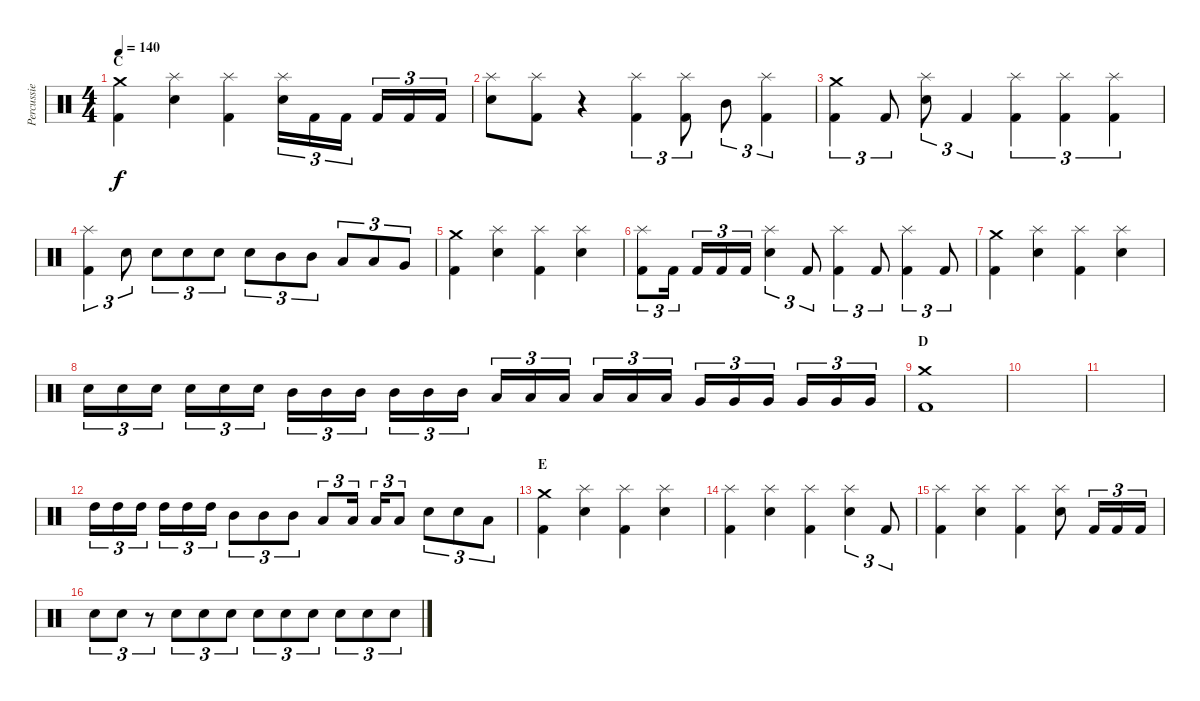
\track ("Percussie" "Percussie") {instrument percussion}
\staff {score}
\articulation defaults
\ts (4 4)
\section ("" "C")
\tempo 140
\clef neutral
\ks c
("Crash medium (hit)" "Kick (hit) 2").4{dy f} ("Splash (hit)" "Electric Snare (hit)").4 ("Splash (hit)" "Kick (hit) 2").4 ("Splash (hit)" "Electric Snare (hit)").16{tu (3 2)} "Kick (hit) 2".16{tu (3 2)} "Kick (hit) 2".16{tu (3 2)} "Kick (hit) 2".16{tu (3 2)} "Kick (hit) 2".16{tu (3 2)} "Kick (hit) 2".16{tu (3 2)} |
("Splash (hit)" "Electric Snare (hit)").8 ("Splash (hit)" "Kick (hit) 2").8 r.4 ("Splash (hit)" "Kick (hit) 2").4{tu (3 2)} ("Splash (hit)" "Kick (hit) 2").8{tu (3 2)} "Mid Tom (hit)".8{tu (3 2)} ("Splash (hit)" "Kick (hit) 2").4{tu (3 2)} |
("Crash medium (hit)" "Kick (hit) 2").4{tu (3 2)} "Kick (hit) 2".8{tu (3 2)} ("Splash (hit)" "Electric Snare (hit)").8{tu (3 2)} "Kick (hit) 2".4{tu (3 2)} ("Splash (hit)" "Kick (hit) 2").4{tu (3 2)} ("Splash (hit)" "Kick (hit) 2").4{tu (3 2)} ("Splash (hit)" "Kick (hit) 2").4{tu (3 2)} |
("Splash (hit)" "Kick (hit) 2").4{tu (3 2)} "Electric Snare (hit)".8{tu (3 2)} "Electric Snare (hit)".8{tu (3 2)} "Electric Snare (hit)".8{tu (3 2)} "Electric Snare (hit)".8{tu (3 2)} "Electric Snare (hit)".8{tu (3 2)} "Mid Tom (hit)".8{tu (3 2)} "Mid Tom (hit)".8{tu (3 2)} "Low Tom (hit)".8{tu (3 2)} "Low Tom (hit)".8{tu (3 2)} "Very Low Tom (hit)".8{tu (3 2)} |
("Crash medium (hit)" "Kick (hit) 2").4 ("Splash (hit)" "Electric Snare (hit)").4 ("Splash (hit)" "Kick (hit) 2").4 ("Splash (hit)" "Electric Snare (hit)").4 |
("Splash (hit)" "Kick (hit) 2").8{tu (3 2)} "Kick (hit) 2".16{tu (3 2)} "Kick (hit) 2".16{tu (3 2)} "Kick (hit) 2".16{tu (3 2)} "Kick (hit) 2".16{tu (3 2)} ("Splash (hit)" "Electric Snare (hit)").4{tu (3 2)} "Kick (hit) 2".8{tu (3 2)} ("Splash (hit)" "Kick (hit) 2").4{tu (3 2)} "Kick (hit) 2".8{tu (3 2)} ("Splash (hit)" "Kick (hit) 2").4{tu (3 2)} "Kick (hit) 2".8{tu (3 2)} |
("Crash medium (hit)" "Kick (hit) 2").4 ("Splash (hit)" "Electric Snare (hit)").4 ("Splash (hit)" "Kick (hit) 2").4 ("Splash (hit)" "Electric Snare (hit)").4 |
"Electric Snare (hit)".16{tu (3 2)} "Electric Snare (hit)".16{tu (3 2)} "Electric Snare (hit)".16{tu (3 2)} "Electric Snare (hit)".16{tu (3 2)} "Electric Snare (hit)".16{tu (3 2)} "Electric Snare (hit)".16{tu (3 2)} "Mid Tom (hit)".16{tu (3 2)} "Mid Tom (hit)".16{tu (3 2)} "Mid Tom (hit)".16{tu (3 2)} "Mid Tom (hit)".16{tu (3 2)} "Mid Tom (hit)".16{tu (3 2)} "Mid Tom (hit)".16{tu (3 2)} "Low Tom (hit)".16{tu (3 2)} "Low Tom (hit)".16{tu (3 2)} "Low Tom (hit)".16{tu (3 2)} "Low Tom (hit)".16{tu (3 2)} "Low Tom (hit)".16{tu (3 2)} "Low Tom (hit)".16{tu (3 2)} "Very Low Tom (hit)".16{tu (3 2)} "Very Low Tom (hit)".16{tu (3 2)} "Very Low Tom (hit)".16{tu (3 2)} "Very Low Tom (hit)".16{tu (3 2)} "Very Low Tom (hit)".16{tu (3 2)} "Very Low Tom (hit)".16{tu (3 2)} |
\section ("" "D")
("Crash medium (hit)" "Kick (hit) 2").1 |
|
|
"High Tom (hit)".16{tu (3 2)} "High Tom (hit)".16{tu (3 2)} "High Tom (hit)".16{tu (3 2)} "High Tom (hit)".16{tu (3 2)} "High Tom (hit)".16{tu (3 2)} "High Tom (hit)".16{tu (3 2)} "Mid Tom (hit)".8{tu (3 2)} "Mid Tom (hit)".8{tu (3 2)} "Mid Tom (hit)".8{tu (3 2)} "Low Tom (hit)".8{tu (3 2)} "Low Tom (hit)".16{tu (3 2)} "Low Tom (hit)".16{tu (3 2)} "Low Tom (hit)".8{tu (3 2)} "Snare (hit) 2".8{tu (3 2)} "Snare (hit) 2".8{tu (3 2)} "Low Tom (hit)".8{tu (3 2)} |
\section ("" "E")
("Crash medium (hit)" "Kick (hit) 2").4 ("Splash (hit)" "Electric Snare (hit)").4 ("Splash (hit)" "Kick (hit) 2").4 ("Splash (hit)" "Electric Snare (hit)").4 |
("Splash (hit)" "Kick (hit) 2").4 ("Splash (hit)" "Electric Snare (hit)").4 ("Splash (hit)" "Kick (hit) 2").4 ("Splash (hit)" "Electric Snare (hit)").4{tu (3 2)} "Kick (hit) 2".8{tu (3 2)} |
("Splash (hit)" "Kick (hit) 2").4 ("Splash (hit)" "Electric Snare (hit)").4 ("Splash (hit)" "Kick (hit) 2").4 ("Splash (hit)" "Electric Snare (hit)").8 "Kick (hit) 2".16{tu (3 2)} "Kick (hit) 2".16{tu (3 2)} "Kick (hit) 2".16{tu (3 2)} |
"Electric Snare (hit)".8{tu (3 2)} "Electric Snare (hit)".8{tu (3 2)} r.8{tu (3 2)} "Electric Snare (hit)".8{tu (3 2)} "Electric Snare (hit)".8{tu (3 2)} "Electric Snare (hit)".8{tu (3 2)} "Electric Snare (hit)".8{tu (3 2)} "Electric Snare (hit)".8{tu (3 2)} "Electric Snare (hit)".8{tu (3 2)} "Electric Snare (hit)".8{tu (3 2)} "Electric Snare (hit)".8{tu (3 2)} "Electric Snare (hit)".8{tu (3 2)}
